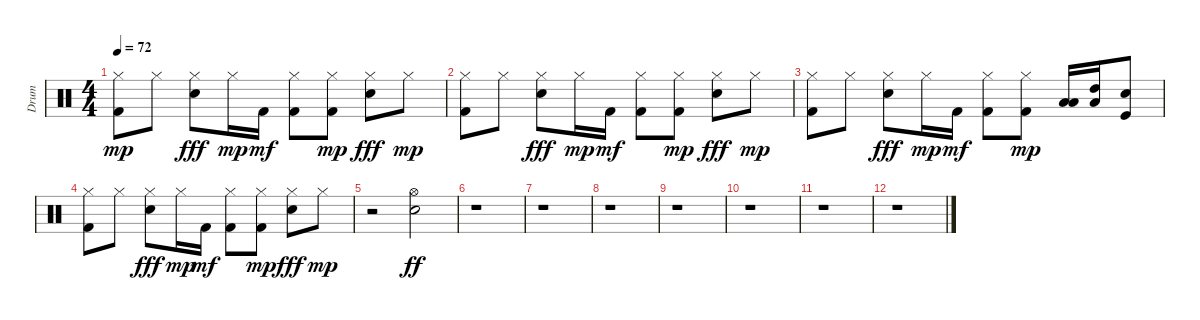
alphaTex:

\track ("Drum" "Drum") {instrument percussion}
\staff {score}
\articulation defaults
\ts (4 4)
\tempo 72
\clef neutral
\ks c
("Hi-Hat (closed)" "Kick (hit) 2").8{dy mp} "Hi-Hat (closed)".8 ("Hi-Hat (closed)" "Snare (hit) 2").8{dy fff} "Hi-Hat (closed)".16{dy mp} "Kick (hit) 2".16{dy mf} ("Hi-Hat (closed)" "Kick (hit) 2").8 ("Hi-Hat (closed)" "Kick (hit) 2").8{dy mp} ("Hi-Hat (closed)" "Snare (hit) 2").8{dy fff} "Hi-Hat (closed)".8{dy mp} |
("Hi-Hat (closed)" "Kick (hit) 2").8 "Hi-Hat (closed)".8 ("Hi-Hat (closed)" "Snare (hit) 2").8{dy fff} "Hi-Hat (closed)".16{dy mp} "Kick (hit) 2".16{dy mf} ("Hi-Hat (closed)" "Kick (hit) 2").8 ("Hi-Hat (closed)" "Kick (hit) 2").8{dy mp} ("Hi-Hat (closed)" "Snare (hit) 2").8{dy fff} "Hi-Hat (closed)".8{dy mp} |
("Hi-Hat (closed)" "Kick (hit) 2").8 "Hi-Hat (closed)".8 ("Hi-Hat (closed)" "Snare (hit) 2").8{dy fff} "Hi-Hat (closed)".16{dy mp} "Kick (hit) 2".16{dy mf} ("Hi-Hat (closed)" "Kick (hit) 2").8 ("Hi-Hat (closed)" "Kick (hit) 2").8{dy mp} ("Low Tom (hit)" "Low Floor Tom (hit)").16 ("Low Tom (hit)" "High Tom (hit)").16 ("Kick (hit)" "Electric Snare (hit)").8 |
("Hi-Hat (closed)" "Kick (hit) 2").8 "Hi-Hat (closed)".8 ("Hi-Hat (closed)" "Snare (hit) 2").8{dy fff} "Hi-Hat (closed)".16{dy mp} "Kick (hit) 2".16{dy mf} ("Hi-Hat (closed)" "Kick (hit) 2").8 ("Hi-Hat (closed)" "Kick (hit) 2").8{dy mp} ("Hi-Hat (closed)" "Snare (hit) 2").8{dy fff} "Hi-Hat (closed)".8{dy mp} |
r.2 ("Hi-Hat (open)" "Electric Snare (hit)").2{dy ff} |
r.1 |
r.1 |
r.1 |
r.1 |
r.1 |
r.1 |
r.1
